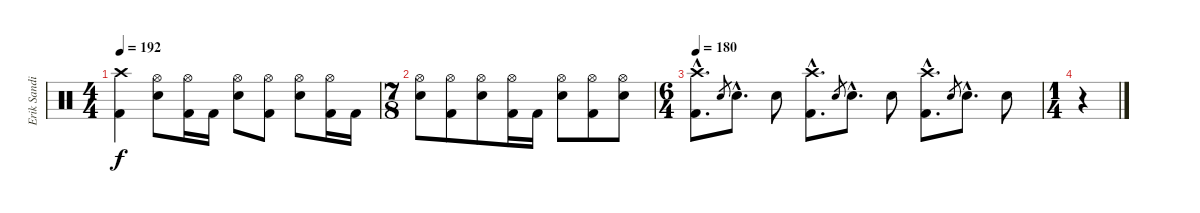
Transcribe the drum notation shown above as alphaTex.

\track ("Erik Sandin - Drums" "Erik Sandi") {instrument percussion}
\staff {score}
\articulation defaults
\ts (4 4)
\tempo 192
\clef neutral
\ks c
("Crash high (hit)" "Kick (hit) 2").4{dy f} ("Hi-Hat (open)" "Electric Snare (hit)").8 ("Hi-Hat (open)" "Kick (hit) 2").16 "Kick (hit) 2".16 ("Hi-Hat (open)" "Electric Snare (hit)").8 ("Hi-Hat (open)" "Kick (hit) 2").8 ("Hi-Hat (open)" "Electric Snare (hit)").8 ("Hi-Hat (open)" "Kick (hit) 2").16 "Kick (hit) 2".16 |
\ts (7 8)
("Hi-Hat (open)" "Electric Snare (hit)").8 ("Hi-Hat (open)" "Kick (hit) 2").8 ("Hi-Hat (open)" "Electric Snare (hit)").8 ("Hi-Hat (open)" "Kick (hit) 2").16 "Kick (hit) 2".16 ("Hi-Hat (open)" "Electric Snare (hit)").8 ("Hi-Hat (open)" "Kick (hit) 2").8 ("Hi-Hat (open)" "Electric Snare (hit)").8 |
\ts (6 4)
\tempo 180
("Crash high (hit)"{hac} "Kick (hit) 2"{hac}).8{d} "Electric Snare (hit)".8{gr} "Electric Snare (hit)"{hac}.8{d} "Electric Snare (hit)".8 ("Crash high (hit)"{hac} "Kick (hit) 2"{hac}).8{d} "Electric Snare (hit)".8{gr} "Electric Snare (hit)"{hac}.8{d} "Electric Snare (hit)".8 ("Crash high (hit)"{hac} "Kick (hit) 2"{hac}).8{d} "Electric Snare (hit)".8{gr} "Electric Snare (hit)"{hac}.8{d} "Electric Snare (hit)".8 |
\ts (1 4)
r.4
